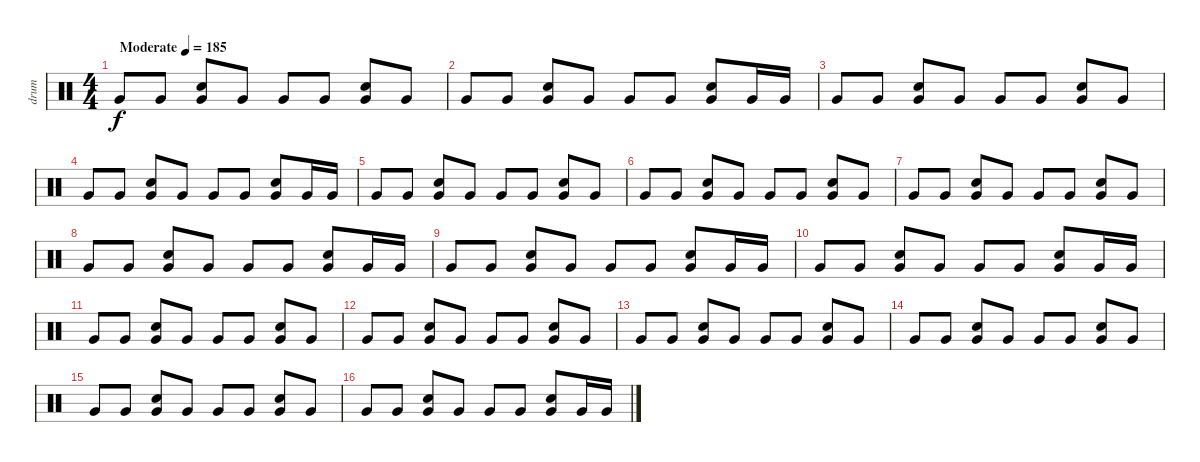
\track ("drum" "drum") {instrument percussion}
\staff {score}
\articulation defaults
\ts (4 4)
\tempo (185 "Moderate")
\clef neutral
\ks c "Very Low Tom (hit)".8{dy f} "Very Low Tom (hit)".8
("Snare (hit) 2" "Very Low Tom (hit)").8 "Very Low Tom (hit)".8 "Very Low Tom (hit)".8 "Very Low Tom (hit)".8 ("Snare (hit) 2" "Very Low Tom (hit)").8 "Very Low Tom (hit)".8 |
"Very Low Tom (hit)".8 "Very Low Tom (hit)".8 ("Snare (hit) 2" "Very Low Tom (hit)").8 "Very Low Tom (hit)".8 "Very Low Tom (hit)".8 "Very Low Tom (hit)".8 ("Snare (hit) 2" "Very Low Tom (hit)").8 "Very Low Tom (hit)".16 "Very Low Tom (hit)".16 |
"Very Low Tom (hit)".8 "Very Low Tom (hit)".8 ("Snare (hit) 2" "Very Low Tom (hit)").8 "Very Low Tom (hit)".8 "Very Low Tom (hit)".8 "Very Low Tom (hit)".8 ("Snare (hit) 2" "Very Low Tom (hit)").8 "Very Low Tom (hit)".8 |
"Very Low Tom (hit)".8 "Very Low Tom (hit)".8 ("Snare (hit) 2" "Very Low Tom (hit)").8 "Very Low Tom (hit)".8 "Very Low Tom (hit)".8 "Very Low Tom (hit)".8 ("Snare (hit) 2" "Very Low Tom (hit)").8 "Very Low Tom (hit)".16 "Very Low Tom (hit)".16 |
"Very Low Tom (hit)".8 "Very Low Tom (hit)".8 ("Snare (hit) 2" "Very Low Tom (hit)").8 "Very Low Tom (hit)".8 "Very Low Tom (hit)".8 "Very Low Tom (hit)".8 ("Snare (hit) 2" "Very Low Tom (hit)").8 "Very Low Tom (hit)".8 |
"Very Low Tom (hit)".8 "Very Low Tom (hit)".8 ("Snare (hit) 2" "Very Low Tom (hit)").8 "Very Low Tom (hit)".8 "Very Low Tom (hit)".8 "Very Low Tom (hit)".8 ("Snare (hit) 2" "Very Low Tom (hit)").8 "Very Low Tom (hit)".8 |
"Very Low Tom (hit)".8 "Very Low Tom (hit)".8 ("Snare (hit) 2" "Very Low Tom (hit)").8 "Very Low Tom (hit)".8 "Very Low Tom (hit)".8 "Very Low Tom (hit)".8 ("Snare (hit) 2" "Very Low Tom (hit)").8 "Very Low Tom (hit)".8 |
"Very Low Tom (hit)".8 "Very Low Tom (hit)".8 ("Snare (hit) 2" "Very Low Tom (hit)").8 "Very Low Tom (hit)".8 "Very Low Tom (hit)".8 "Very Low Tom (hit)".8 ("Snare (hit) 2" "Very Low Tom (hit)").8 "Very Low Tom (hit)".16 "Very Low Tom (hit)".16 |
"Very Low Tom (hit)".8 "Very Low Tom (hit)".8 ("Snare (hit) 2" "Very Low Tom (hit)").8 "Very Low Tom (hit)".8 "Very Low Tom (hit)".8 "Very Low Tom (hit)".8 ("Snare (hit) 2" "Very Low Tom (hit)").8 "Very Low Tom (hit)".16 "Very Low Tom (hit)".16 |
"Very Low Tom (hit)".8 "Very Low Tom (hit)".8 ("Snare (hit) 2" "Very Low Tom (hit)").8 "Very Low Tom (hit)".8 "Very Low Tom (hit)".8 "Very Low Tom (hit)".8 ("Snare (hit) 2" "Very Low Tom (hit)").8 "Very Low Tom (hit)".16 "Very Low Tom (hit)".16 |
"Very Low Tom (hit)".8 "Very Low Tom (hit)".8 ("Snare (hit) 2" "Very Low Tom (hit)").8 "Very Low Tom (hit)".8 "Very Low Tom (hit)".8 "Very Low Tom (hit)".8 ("Snare (hit) 2" "Very Low Tom (hit)").8 "Very Low Tom (hit)".8 |
"Very Low Tom (hit)".8 "Very Low Tom (hit)".8 ("Snare (hit) 2" "Very Low Tom (hit)").8 "Very Low Tom (hit)".8 "Very Low Tom (hit)".8 "Very Low Tom (hit)".8 ("Snare (hit) 2" "Very Low Tom (hit)").8 "Very Low Tom (hit)".8 |
"Very Low Tom (hit)".8 "Very Low Tom (hit)".8 ("Snare (hit) 2" "Very Low Tom (hit)").8 "Very Low Tom (hit)".8 "Very Low Tom (hit)".8 "Very Low Tom (hit)".8 ("Snare (hit) 2" "Very Low Tom (hit)").8 "Very Low Tom (hit)".8 |
"Very Low Tom (hit)".8 "Very Low Tom (hit)".8 ("Snare (hit) 2" "Very Low Tom (hit)").8 "Very Low Tom (hit)".8 "Very Low Tom (hit)".8 "Very Low Tom (hit)".8 ("Snare (hit) 2" "Very Low Tom (hit)").8 "Very Low Tom (hit)".8 |
"Very Low Tom (hit)".8 "Very Low Tom (hit)".8 ("Snare (hit) 2" "Very Low Tom (hit)").8 "Very Low Tom (hit)".8 "Very Low Tom (hit)".8 "Very Low Tom (hit)".8 ("Snare (hit) 2" "Very Low Tom (hit)").8 "Very Low Tom (hit)".8 |
"Very Low Tom (hit)".8 "Very Low Tom (hit)".8 ("Snare (hit) 2" "Very Low Tom (hit)").8 "Very Low Tom (hit)".8 "Very Low Tom (hit)".8 "Very Low Tom (hit)".8 ("Snare (hit) 2" "Very Low Tom (hit)").8 "Very Low Tom (hit)".16 "Very Low Tom (hit)".16
